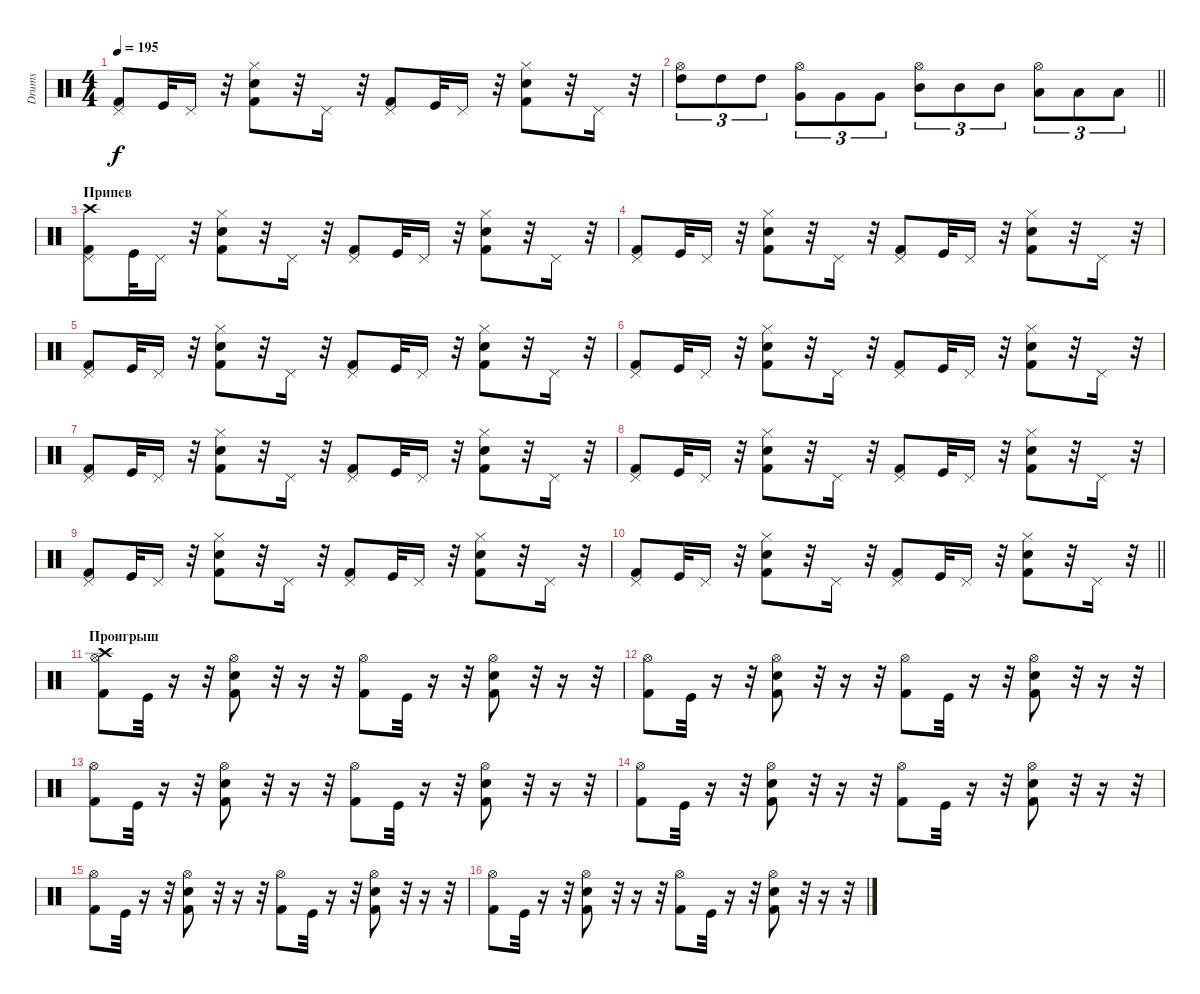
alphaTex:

\track ("Drums" "Drums") {instrument percussion}
\staff {score}
\articulation defaults
\ts (4 4)
\tempo 195
\clef neutral
\ks c
("Kick (hit) 2" "Pedal Hi-Hat (hit)").8{dy f} "Kick (hit)".32 "Pedal Hi-Hat (hit)".16 r.32 ("Snare (hit) 2" "Kick (hit) 2" "Hi-Hat (closed)").8 r.32 "Pedal Hi-Hat (hit)".16 r.32 ("Kick (hit) 2" "Pedal Hi-Hat (hit)").8 "Kick (hit)".32 "Pedal Hi-Hat (hit)".16 r.32 ("Snare (hit) 2" "Kick (hit) 2" "Hi-Hat (closed)").8 r.32 "Pedal Hi-Hat (hit)".16 r.32 |
\barLineRight lightlight
("Hi-Hat (open)" "High Tom (hit)").8{tu (3 2)} "High Tom (hit)".8{tu (3 2)} "High Tom (hit)".8{tu (3 2)} ("Hi-Hat (open)" "Very Low Tom (hit)").8{tu (3 2)} "Very Low Tom (hit)".8{tu (3 2)} "Very Low Tom (hit)".8{tu (3 2)} ("Hi-Hat (open)" "Mid Tom (hit)").8{tu (3 2)} "Mid Tom (hit)".8{tu (3 2)} "Mid Tom (hit)".8{tu (3 2)} ("Hi-Hat (open)" "Low Tom (hit)").8{tu (3 2)} "Low Tom (hit)".8{tu (3 2)} "Low Tom (hit)".8{tu (3 2)} |
\section ("" "Припев")
("Crash high (hit)" "Kick (hit) 2" "Pedal Hi-Hat (hit)").8 "Kick (hit)".32 "Pedal Hi-Hat (hit)".16 r.32 ("Snare (hit) 2" "Kick (hit) 2" "Hi-Hat (closed)").8 r.32 "Pedal Hi-Hat (hit)".16 r.32 ("Kick (hit) 2" "Pedal Hi-Hat (hit)").8 "Kick (hit)".32 "Pedal Hi-Hat (hit)".16 r.32 ("Snare (hit) 2" "Kick (hit) 2" "Hi-Hat (closed)").8 r.32 "Pedal Hi-Hat (hit)".16 r.32 |
("Kick (hit) 2" "Pedal Hi-Hat (hit)").8 "Kick (hit)".32 "Pedal Hi-Hat (hit)".16 r.32 ("Snare (hit) 2" "Kick (hit) 2" "Hi-Hat (closed)").8 r.32 "Pedal Hi-Hat (hit)".16 r.32 ("Kick (hit) 2" "Pedal Hi-Hat (hit)").8 "Kick (hit)".32 "Pedal Hi-Hat (hit)".16 r.32 ("Snare (hit) 2" "Kick (hit) 2" "Hi-Hat (closed)").8 r.32 "Pedal Hi-Hat (hit)".16 r.32 |
("Kick (hit) 2" "Pedal Hi-Hat (hit)").8 "Kick (hit)".32 "Pedal Hi-Hat (hit)".16 r.32 ("Snare (hit) 2" "Kick (hit) 2" "Hi-Hat (closed)").8 r.32 "Pedal Hi-Hat (hit)".16 r.32 ("Kick (hit) 2" "Pedal Hi-Hat (hit)").8 "Kick (hit)".32 "Pedal Hi-Hat (hit)".16 r.32 ("Snare (hit) 2" "Kick (hit) 2" "Hi-Hat (closed)").8 r.32 "Pedal Hi-Hat (hit)".16 r.32 |
("Kick (hit) 2" "Pedal Hi-Hat (hit)").8 "Kick (hit)".32 "Pedal Hi-Hat (hit)".16 r.32 ("Snare (hit) 2" "Kick (hit) 2" "Hi-Hat (closed)").8 r.32 "Pedal Hi-Hat (hit)".16 r.32 ("Kick (hit) 2" "Pedal Hi-Hat (hit)").8 "Kick (hit)".32 "Pedal Hi-Hat (hit)".16 r.32 ("Snare (hit) 2" "Kick (hit) 2" "Hi-Hat (closed)").8 r.32 "Pedal Hi-Hat (hit)".16 r.32 |
("Kick (hit) 2" "Pedal Hi-Hat (hit)").8 "Kick (hit)".32 "Pedal Hi-Hat (hit)".16 r.32 ("Snare (hit) 2" "Kick (hit) 2" "Hi-Hat (closed)").8 r.32 "Pedal Hi-Hat (hit)".16 r.32 ("Kick (hit) 2" "Pedal Hi-Hat (hit)").8 "Kick (hit)".32 "Pedal Hi-Hat (hit)".16 r.32 ("Snare (hit) 2" "Kick (hit) 2" "Hi-Hat (closed)").8 r.32 "Pedal Hi-Hat (hit)".16 r.32 |
("Kick (hit) 2" "Pedal Hi-Hat (hit)").8 "Kick (hit)".32 "Pedal Hi-Hat (hit)".16 r.32 ("Snare (hit) 2" "Kick (hit) 2" "Hi-Hat (closed)").8 r.32 "Pedal Hi-Hat (hit)".16 r.32 ("Kick (hit) 2" "Pedal Hi-Hat (hit)").8 "Kick (hit)".32 "Pedal Hi-Hat (hit)".16 r.32 ("Snare (hit) 2" "Kick (hit) 2" "Hi-Hat (closed)").8 r.32 "Pedal Hi-Hat (hit)".16 r.32 |
("Kick (hit) 2" "Pedal Hi-Hat (hit)").8 "Kick (hit)".32 "Pedal Hi-Hat (hit)".16 r.32 ("Snare (hit) 2" "Kick (hit) 2" "Hi-Hat (closed)").8 r.32 "Pedal Hi-Hat (hit)".16 r.32 ("Kick (hit) 2" "Pedal Hi-Hat (hit)").8 "Kick (hit)".32 "Pedal Hi-Hat (hit)".16 r.32 ("Snare (hit) 2" "Kick (hit) 2" "Hi-Hat (closed)").8 r.32 "Pedal Hi-Hat (hit)".16 r.32 |
\barLineRight lightlight
("Kick (hit) 2" "Pedal Hi-Hat (hit)").8 "Kick (hit)".32 "Pedal Hi-Hat (hit)".16 r.32 ("Snare (hit) 2" "Kick (hit) 2" "Hi-Hat (closed)").8 r.32 "Pedal Hi-Hat (hit)".16 r.32 ("Kick (hit) 2" "Pedal Hi-Hat (hit)").8 "Kick (hit)".32 "Pedal Hi-Hat (hit)".16 r.32 ("Snare (hit) 2" "Kick (hit) 2" "Hi-Hat (closed)").8 r.32 "Pedal Hi-Hat (hit)".16 r.32 |
\section ("" "Проигрыш")
("Crash high (hit)" "Kick (hit) 2" "Hi-Hat (open)").8 "Kick (hit)".32 r.16 r.32 ("Snare (hit) 2" "Kick (hit) 2" "Hi-Hat (open)").8 r.32 r.16 r.32 ("Kick (hit) 2" "Hi-Hat (open)").8 "Kick (hit)".32 r.16 r.32 ("Snare (hit) 2" "Kick (hit) 2" "Hi-Hat (open)").8 r.32 r.16 r.32 |
("Kick (hit) 2" "Hi-Hat (open)").8 "Kick (hit)".32 r.16 r.32 ("Snare (hit) 2" "Kick (hit) 2" "Hi-Hat (open)").8 r.32 r.16 r.32 ("Kick (hit) 2" "Hi-Hat (open)").8 "Kick (hit)".32 r.16 r.32 ("Snare (hit) 2" "Kick (hit) 2" "Hi-Hat (open)").8 r.32 r.16 r.32 |
("Kick (hit) 2" "Hi-Hat (open)").8 "Kick (hit)".32 r.16 r.32 ("Snare (hit) 2" "Kick (hit) 2" "Hi-Hat (open)").8 r.32 r.16 r.32 ("Kick (hit) 2" "Hi-Hat (open)").8 "Kick (hit)".32 r.16 r.32 ("Snare (hit) 2" "Kick (hit) 2" "Hi-Hat (open)").8 r.32 r.16 r.32 |
("Kick (hit) 2" "Hi-Hat (open)").8 "Kick (hit)".32 r.16 r.32 ("Snare (hit) 2" "Kick (hit) 2" "Hi-Hat (open)").8 r.32 r.16 r.32 ("Kick (hit) 2" "Hi-Hat (open)").8 "Kick (hit)".32 r.16 r.32 ("Snare (hit) 2" "Kick (hit) 2" "Hi-Hat (open)").8 r.32 r.16 r.32 |
("Kick (hit) 2" "Hi-Hat (open)").8 "Kick (hit)".32 r.16 r.32 ("Snare (hit) 2" "Kick (hit) 2" "Hi-Hat (open)").8 r.32 r.16 r.32 ("Kick (hit) 2" "Hi-Hat (open)").8 "Kick (hit)".32 r.16 r.32 ("Snare (hit) 2" "Kick (hit) 2" "Hi-Hat (open)").8 r.32 r.16 r.32 |
("Kick (hit) 2" "Hi-Hat (open)").8 "Kick (hit)".32 r.16 r.32 ("Snare (hit) 2" "Kick (hit) 2" "Hi-Hat (open)").8 r.32 r.16 r.32 ("Kick (hit) 2" "Hi-Hat (open)").8 "Kick (hit)".32 r.16 r.32 ("Snare (hit) 2" "Kick (hit) 2" "Hi-Hat (open)").8 r.32 r.16 r.32
